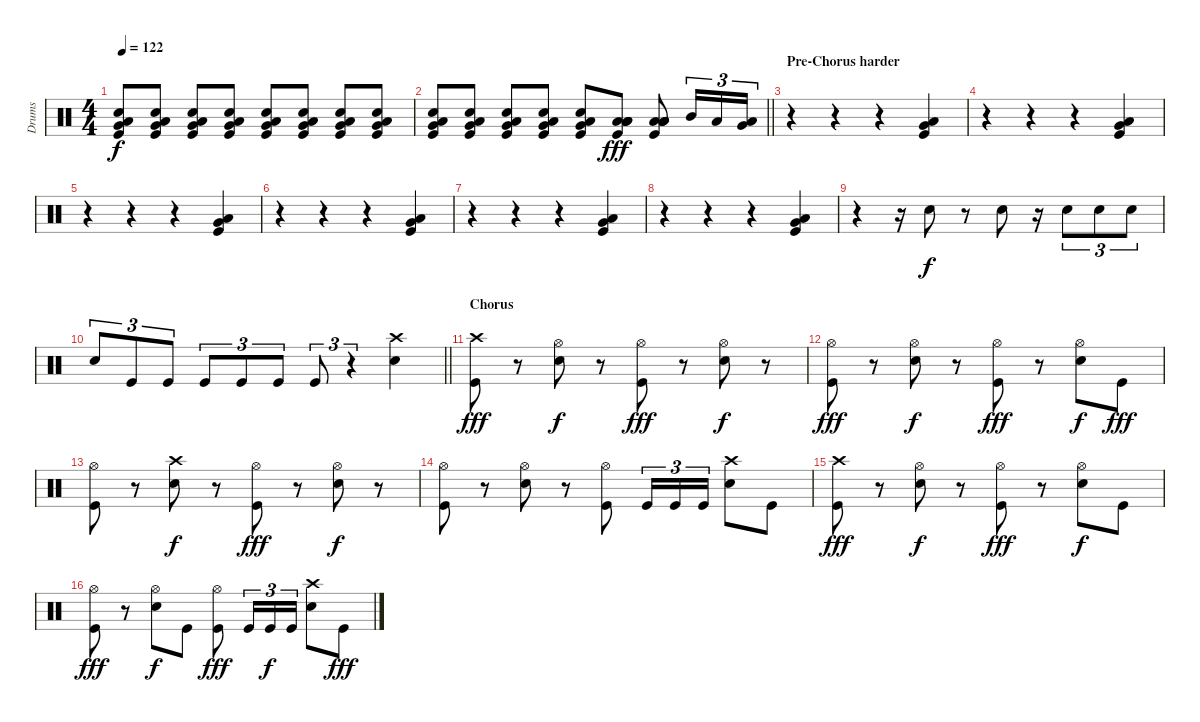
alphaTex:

\track ("Drums" "Drums") {instrument percussion}
\staff {score}
\articulation defaults
\ts (4 4)
\tempo 122
\clef neutral
\ks c
("Kick (hit)" "Low Floor Tom (hit)" "Very Low Tom (hit)" "Snare (hit) 2").8{dy f volume 3} ("Kick (hit)" "Low Floor Tom (hit)" "Very Low Tom (hit)" "Snare (hit) 2").8{volume 16} ("Kick (hit)" "Low Floor Tom (hit)" "Very Low Tom (hit)" "Snare (hit) 2").8 ("Kick (hit)" "Low Floor Tom (hit)" "Very Low Tom (hit)" "Snare (hit) 2").8 ("Kick (hit)" "Low Floor Tom (hit)" "Very Low Tom (hit)" "Snare (hit) 2").8 ("Kick (hit)" "Low Floor Tom (hit)" "Very Low Tom (hit)" "Snare (hit) 2").8 ("Kick (hit)" "Low Floor Tom (hit)" "Very Low Tom (hit)" "Snare (hit) 2").8 ("Kick (hit)" "Low Floor Tom (hit)" "Very Low Tom (hit)" "Snare (hit) 2").8 |
\barLineRight lightlight
("Kick (hit)" "Low Floor Tom (hit)" "Very Low Tom (hit)" "Snare (hit) 2").8 ("Kick (hit)" "Low Floor Tom (hit)" "Very Low Tom (hit)" "Snare (hit) 2").8 ("Kick (hit)" "Low Floor Tom (hit)" "Very Low Tom (hit)" "Snare (hit) 2").8 ("Kick (hit)" "Low Floor Tom (hit)" "Very Low Tom (hit)" "Snare (hit) 2").8 ("Kick (hit)" "Low Floor Tom (hit)" "Very Low Tom (hit)" "Snare (hit) 2").8 ("Low Floor Tom (hit)" "Low Floor Tom (hit)" "Low Floor Tom (hit)" "Low Floor Tom (hit)" "Kick (hit)").8{dy fff} ("Low Floor Tom (hit)" "Low Floor Tom (hit)" "Low Floor Tom (hit)" "Low Floor Tom (hit)" "Kick (hit)").8 "Mid Tom (hit)".16{tu (3 2)} "Low Tom (hit)".16{tu (3 2)} ("Very Low Tom (hit)" "Low Floor Tom (hit)").16{tu (3 2)} |
\section ("" "Pre-Chorus harder")
r.4 r.4 r.4 ("Low Floor Tom (hit)" "Very Low Tom (hit)" "Kick (hit)").4 |
r.4 r.4 r.4 ("Low Floor Tom (hit)" "Very Low Tom (hit)" "Kick (hit)").4 |
r.4 r.4 r.4 ("Low Floor Tom (hit)" "Very Low Tom (hit)" "Kick (hit)").4 |
r.4 r.4 r.4 ("Low Floor Tom (hit)" "Very Low Tom (hit)" "Kick (hit)").4 |
r.4 r.4 r.4 ("Low Floor Tom (hit)" "Very Low Tom (hit)" "Kick (hit)").4 |
r.4 r.4 r.4 ("Low Floor Tom (hit)" "Very Low Tom (hit)" "Kick (hit)").4 |
r.4 r.16 "Snare (hit) 2".8{dy f} r.8 "Snare (hit) 2".8 r.16 "Snare (hit) 2".8{tu (3 2)} "Snare (hit) 2".8{tu (3 2)} "Snare (hit) 2".8{tu (3 2)} |
\barLineRight lightlight "Snare (hit) 2".8{tu (3 2)} "Kick (hit)".8{tu (3 2)} "Kick (hit)".8{tu (3 2)} "Kick (hit)".8{tu (3 2)} "Kick (hit)".8{tu (3 2)} "Kick (hit)".8{tu (3 2)} "Kick (hit)".8{tu (3 2)}
r.4{tu (3 2)} ("Snare (hit) 2" "Crash high (hit)").4 |
\section ("" "Chorus")
("Kick (hit)" "Crash high (hit)").8{dy fff} r.8 ("Hi-Hat (open)" "Snare (hit) 2").8{dy f} r.8 ("Kick (hit)" "Hi-Hat (open)").8{dy fff} r.8 ("Hi-Hat (open)" "Snare (hit) 2").8{dy f} r.8 |
("Kick (hit)" "Hi-Hat (open)").8{dy fff} r.8 ("Hi-Hat (open)" "Snare (hit) 2").8{dy f} r.8 ("Kick (hit)" "Hi-Hat (open)").8{dy fff} r.8 ("Hi-Hat (open)" "Snare (hit) 2").8{dy f} "Kick (hit)".8{dy fff} |
("Kick (hit)" "Hi-Hat (open)").8 r.8 ("Crash high (hit)" "Snare (hit) 2").8{dy f} r.8 ("Kick (hit)" "Hi-Hat (open)").8{dy fff} r.8 ("Hi-Hat (open)" "Snare (hit) 2").8{dy f} r.8 |
("Kick (hit)" "Hi-Hat (open)").8 r.8 ("Hi-Hat (open)" "Snare (hit) 2").8 r.8 ("Kick (hit)" "Hi-Hat (open)").8 "Kick (hit)".16{tu (3 2)} "Kick (hit)".16{tu (3 2)} "Kick (hit)".16{tu (3 2)} ("Snare (hit) 2" "Crash high (hit)").8 "Kick (hit)".8 |
("Kick (hit)" "Crash high (hit)").8{dy fff} r.8 ("Hi-Hat (open)" "Snare (hit) 2").8{dy f} r.8 ("Kick (hit)" "Hi-Hat (open)").8{dy fff} r.8 ("Hi-Hat (open)" "Snare (hit) 2").8{dy f} "Kick (hit)".8 |
("Kick (hit)" "Hi-Hat (open)").8{dy fff} r.8 ("Hi-Hat (open)" "Snare (hit) 2").8{dy f} "Kick (hit)".8 ("Kick (hit)" "Hi-Hat (open)").8{dy fff} "Kick (hit)".16{tu (3 2)} "Kick (hit)".16{tu (3 2) dy f} "Kick (hit)".16{tu (3 2)} ("Crash high (hit)" "Snare (hit) 2").8 "Kick (hit)".8{dy fff}
